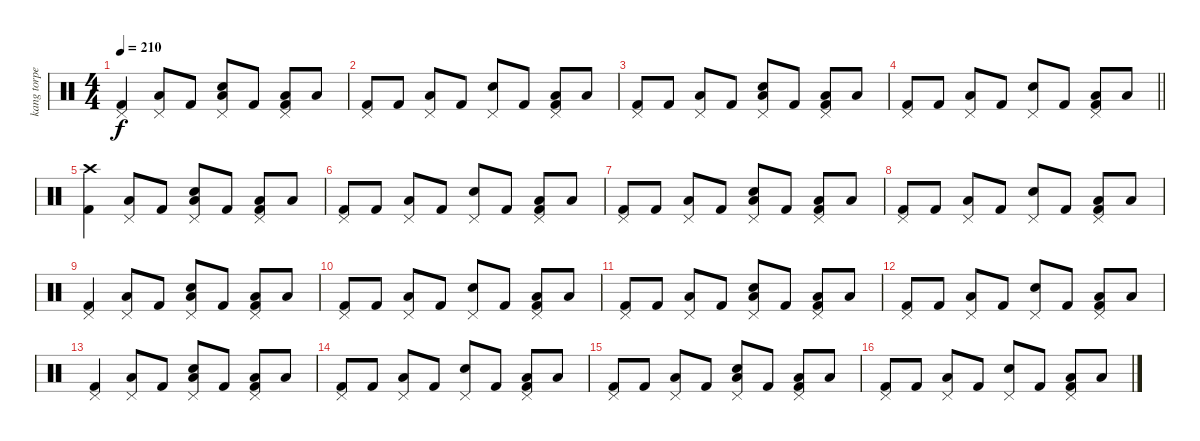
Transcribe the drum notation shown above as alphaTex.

\track ("kang torpey" "kang torpe") {instrument percussion}
\staff {score}
\articulation defaults
\ts (4 4)
\tempo 210
\clef neutral
\ks c
("Pedal Hi-Hat (hit)" "Kick (hit) 2").4{dy f} ("Pedal Hi-Hat (hit)" "Low Floor Tom (hit)").8 "Kick (hit) 2".8 ("Pedal Hi-Hat (hit)" "Low Floor Tom (hit)" "Electric Snare (hit)").8 "Kick (hit) 2".8 ("Pedal Hi-Hat (hit)" "Low Floor Tom (hit)" "Kick (hit) 2").8 "Low Floor Tom (hit)".8 |
("Pedal Hi-Hat (hit)" "Kick (hit) 2").8 "Kick (hit) 2".8 ("Pedal Hi-Hat (hit)" "Low Floor Tom (hit)").8 "Kick (hit) 2".8 ("Pedal Hi-Hat (hit)" "Electric Snare (hit)").8 "Kick (hit) 2".8 ("Pedal Hi-Hat (hit)" "Low Floor Tom (hit)" "Kick (hit) 2").8 "Low Floor Tom (hit)".8 |
("Pedal Hi-Hat (hit)" "Kick (hit) 2").8 "Kick (hit) 2".8 ("Pedal Hi-Hat (hit)" "Low Floor Tom (hit)").8 "Kick (hit) 2".8 ("Pedal Hi-Hat (hit)" "Low Floor Tom (hit)" "Electric Snare (hit)").8 "Kick (hit) 2".8 ("Pedal Hi-Hat (hit)" "Low Floor Tom (hit)" "Kick (hit) 2").8 "Low Floor Tom (hit)".8 |
\barLineRight lightlight
("Pedal Hi-Hat (hit)" "Kick (hit) 2").8 "Kick (hit) 2".8 ("Pedal Hi-Hat (hit)" "Low Floor Tom (hit)").8 "Kick (hit) 2".8 ("Pedal Hi-Hat (hit)" "Electric Snare (hit)").8 "Kick (hit) 2".8 ("Pedal Hi-Hat (hit)" "Low Floor Tom (hit)" "Kick (hit) 2").8 "Low Floor Tom (hit)".8 |
("Crash high (hit)" "Kick (hit) 2").4 ("Pedal Hi-Hat (hit)" "Low Floor Tom (hit)").8 "Kick (hit) 2".8 ("Pedal Hi-Hat (hit)" "Low Floor Tom (hit)" "Electric Snare (hit)").8 "Kick (hit) 2".8 ("Pedal Hi-Hat (hit)" "Low Floor Tom (hit)" "Kick (hit) 2").8 "Low Floor Tom (hit)".8 |
("Pedal Hi-Hat (hit)" "Kick (hit) 2").8 "Kick (hit) 2".8 ("Pedal Hi-Hat (hit)" "Low Floor Tom (hit)").8 "Kick (hit) 2".8 ("Pedal Hi-Hat (hit)" "Electric Snare (hit)").8 "Kick (hit) 2".8 ("Pedal Hi-Hat (hit)" "Low Floor Tom (hit)" "Kick (hit) 2").8 "Low Floor Tom (hit)".8 |
("Pedal Hi-Hat (hit)" "Kick (hit) 2").8 "Kick (hit) 2".8 ("Pedal Hi-Hat (hit)" "Low Floor Tom (hit)").8 "Kick (hit) 2".8 ("Pedal Hi-Hat (hit)" "Low Floor Tom (hit)" "Electric Snare (hit)").8 "Kick (hit) 2".8 ("Pedal Hi-Hat (hit)" "Low Floor Tom (hit)" "Kick (hit) 2").8 "Low Floor Tom (hit)".8 |
("Pedal Hi-Hat (hit)" "Kick (hit) 2").8 "Kick (hit) 2".8 ("Pedal Hi-Hat (hit)" "Low Floor Tom (hit)").8 "Kick (hit) 2".8 ("Pedal Hi-Hat (hit)" "Electric Snare (hit)").8 "Kick (hit) 2".8 ("Pedal Hi-Hat (hit)" "Low Floor Tom (hit)" "Kick (hit) 2").8 "Low Floor Tom (hit)".8 |
("Pedal Hi-Hat (hit)" "Kick (hit) 2").4 ("Pedal Hi-Hat (hit)" "Low Floor Tom (hit)").8 "Kick (hit) 2".8 ("Pedal Hi-Hat (hit)" "Low Floor Tom (hit)" "Electric Snare (hit)").8 "Kick (hit) 2".8 ("Pedal Hi-Hat (hit)" "Low Floor Tom (hit)" "Kick (hit) 2").8 "Low Floor Tom (hit)".8 |
("Pedal Hi-Hat (hit)" "Kick (hit) 2").8 "Kick (hit) 2".8 ("Pedal Hi-Hat (hit)" "Low Floor Tom (hit)").8 "Kick (hit) 2".8 ("Pedal Hi-Hat (hit)" "Electric Snare (hit)").8 "Kick (hit) 2".8 ("Pedal Hi-Hat (hit)" "Low Floor Tom (hit)" "Kick (hit) 2").8 "Low Floor Tom (hit)".8 |
("Pedal Hi-Hat (hit)" "Kick (hit) 2").8 "Kick (hit) 2".8 ("Pedal Hi-Hat (hit)" "Low Floor Tom (hit)").8 "Kick (hit) 2".8 ("Pedal Hi-Hat (hit)" "Low Floor Tom (hit)" "Electric Snare (hit)").8 "Kick (hit) 2".8 ("Pedal Hi-Hat (hit)" "Low Floor Tom (hit)" "Kick (hit) 2").8 "Low Floor Tom (hit)".8 |
("Pedal Hi-Hat (hit)" "Kick (hit) 2").8 "Kick (hit) 2".8 ("Pedal Hi-Hat (hit)" "Low Floor Tom (hit)").8 "Kick (hit) 2".8 ("Pedal Hi-Hat (hit)" "Electric Snare (hit)").8 "Kick (hit) 2".8 ("Pedal Hi-Hat (hit)" "Low Floor Tom (hit)" "Kick (hit) 2").8 "Low Floor Tom (hit)".8 |
("Pedal Hi-Hat (hit)" "Kick (hit) 2").4 ("Pedal Hi-Hat (hit)" "Low Floor Tom (hit)").8 "Kick (hit) 2".8 ("Pedal Hi-Hat (hit)" "Low Floor Tom (hit)" "Electric Snare (hit)").8 "Kick (hit) 2".8 ("Pedal Hi-Hat (hit)" "Low Floor Tom (hit)" "Kick (hit) 2").8 "Low Floor Tom (hit)".8 |
("Pedal Hi-Hat (hit)" "Kick (hit) 2").8 "Kick (hit) 2".8 ("Pedal Hi-Hat (hit)" "Low Floor Tom (hit)").8 "Kick (hit) 2".8 ("Pedal Hi-Hat (hit)" "Electric Snare (hit)").8 "Kick (hit) 2".8 ("Pedal Hi-Hat (hit)" "Low Floor Tom (hit)" "Kick (hit) 2").8 "Low Floor Tom (hit)".8 |
("Pedal Hi-Hat (hit)" "Kick (hit) 2").8 "Kick (hit) 2".8 ("Pedal Hi-Hat (hit)" "Low Floor Tom (hit)").8 "Kick (hit) 2".8 ("Pedal Hi-Hat (hit)" "Low Floor Tom (hit)" "Electric Snare (hit)").8 "Kick (hit) 2".8 ("Pedal Hi-Hat (hit)" "Low Floor Tom (hit)" "Kick (hit) 2").8 "Low Floor Tom (hit)".8 |
("Pedal Hi-Hat (hit)" "Kick (hit) 2").8 "Kick (hit) 2".8 ("Pedal Hi-Hat (hit)" "Low Floor Tom (hit)").8 "Kick (hit) 2".8 ("Pedal Hi-Hat (hit)" "Electric Snare (hit)").8 "Kick (hit) 2".8 ("Pedal Hi-Hat (hit)" "Low Floor Tom (hit)" "Kick (hit) 2").8 "Low Floor Tom (hit)".8
